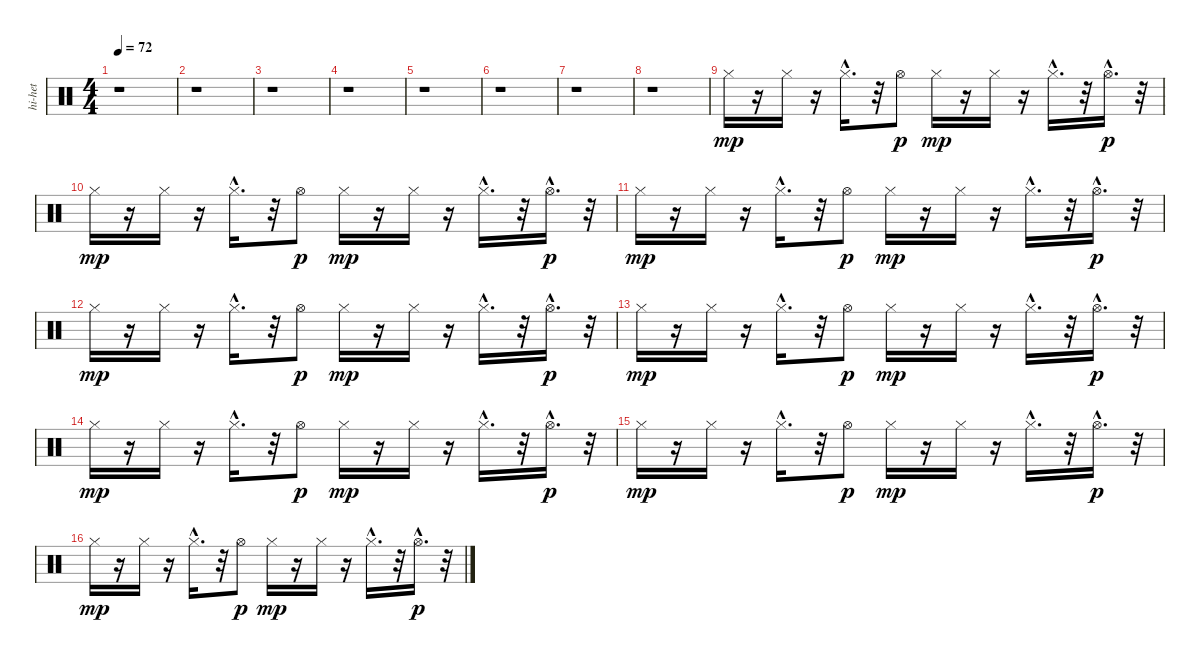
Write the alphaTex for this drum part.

\track ("hi-het" "hi-het") {instrument percussion}
\staff {score}
\articulation defaults
\ts (4 4)
\tempo 72
\clef neutral
\ks c
r.1{dy mp} |
r.1 |
r.1 |
r.1 |
r.1 |
r.1 |
r.1 |
r.1 |
"Hi-Hat (closed)".16 r.16 "Hi-Hat (closed)".16 r.16 "Hi-Hat (closed)"{hac}.16{d} r.32 "Hi-Hat (open)".8{dy p} "Hi-Hat (closed)".16{dy mp} r.16 "Hi-Hat (closed)".16 r.16 "Hi-Hat (closed)"{hac}.16{d} r.32 "Hi-Hat (open)"{hac}.16{d dy p} r.32 |
"Hi-Hat (closed)".16{dy mp} r.16 "Hi-Hat (closed)".16 r.16 "Hi-Hat (closed)"{hac}.16{d} r.32 "Hi-Hat (open)".8{dy p} "Hi-Hat (closed)".16{dy mp} r.16 "Hi-Hat (closed)".16 r.16 "Hi-Hat (closed)"{hac}.16{d} r.32 "Hi-Hat (open)"{hac}.16{d dy p} r.32 |
"Hi-Hat (closed)".16{dy mp} r.16 "Hi-Hat (closed)".16 r.16 "Hi-Hat (closed)"{hac}.16{d} r.32 "Hi-Hat (open)".8{dy p} "Hi-Hat (closed)".16{dy mp} r.16 "Hi-Hat (closed)".16 r.16 "Hi-Hat (closed)"{hac}.16{d} r.32 "Hi-Hat (open)"{hac}.16{d dy p} r.32 |
"Hi-Hat (closed)".16{dy mp} r.16 "Hi-Hat (closed)".16 r.16 "Hi-Hat (closed)"{hac}.16{d} r.32 "Hi-Hat (open)".8{dy p} "Hi-Hat (closed)".16{dy mp} r.16 "Hi-Hat (closed)".16 r.16 "Hi-Hat (closed)"{hac}.16{d} r.32 "Hi-Hat (open)"{hac}.16{d dy p} r.32 |
"Hi-Hat (closed)".16{dy mp} r.16 "Hi-Hat (closed)".16 r.16 "Hi-Hat (closed)"{hac}.16{d} r.32 "Hi-Hat (open)".8{dy p} "Hi-Hat (closed)".16{dy mp} r.16 "Hi-Hat (closed)".16 r.16 "Hi-Hat (closed)"{hac}.16{d} r.32 "Hi-Hat (open)"{hac}.16{d dy p} r.32 |
"Hi-Hat (closed)".16{dy mp} r.16 "Hi-Hat (closed)".16 r.16 "Hi-Hat (closed)"{hac}.16{d} r.32 "Hi-Hat (open)".8{dy p} "Hi-Hat (closed)".16{dy mp} r.16 "Hi-Hat (closed)".16 r.16 "Hi-Hat (closed)"{hac}.16{d} r.32 "Hi-Hat (open)"{hac}.16{d dy p} r.32 |
"Hi-Hat (closed)".16{dy mp} r.16 "Hi-Hat (closed)".16 r.16 "Hi-Hat (closed)"{hac}.16{d} r.32 "Hi-Hat (open)".8{dy p} "Hi-Hat (closed)".16{dy mp} r.16 "Hi-Hat (closed)".16 r.16 "Hi-Hat (closed)"{hac}.16{d} r.32 "Hi-Hat (open)"{hac}.16{d dy p} r.32 |
"Hi-Hat (closed)".16{dy mp} r.16 "Hi-Hat (closed)".16 r.16 "Hi-Hat (closed)"{hac}.16{d} r.32 "Hi-Hat (open)".8{dy p} "Hi-Hat (closed)".16{dy mp} r.16 "Hi-Hat (closed)".16 r.16 "Hi-Hat (closed)"{hac}.16{d} r.32 "Hi-Hat (open)"{hac}.16{d dy p} r.32
